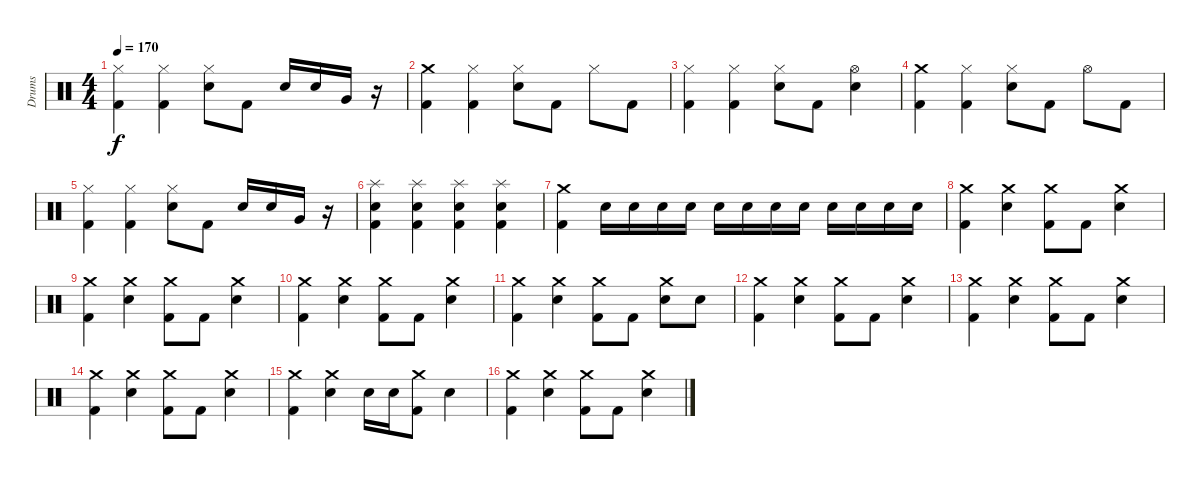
\track ("Drums" "Drums") {instrument percussion}
\staff {score}
\articulation defaults
\ts (4 4)
\tempo 170
\clef neutral
\ks c
("Hi-Hat (closed)" "Kick (hit) 2").4{dy f} ("Hi-Hat (closed)" "Kick (hit) 2").4 ("Hi-Hat (closed)" "Electric Snare (hit)").8 "Kick (hit) 2".8 "Electric Snare (hit)".16 "Electric Snare (hit)".16 "Very Low Tom (hit)".16 r.16 |
("Crash medium (hit)" "Kick (hit) 2").4 ("Hi-Hat (closed)" "Kick (hit) 2").4 ("Hi-Hat (closed)" "Electric Snare (hit)").8 "Kick (hit) 2".8 "Hi-Hat (closed)".8 "Kick (hit) 2".8 |
("Hi-Hat (closed)" "Kick (hit) 2").4 ("Hi-Hat (closed)" "Kick (hit) 2").4 ("Hi-Hat (closed)" "Electric Snare (hit)").8 "Kick (hit) 2".8 ("Hi-Hat (open)" "Electric Snare (hit)").4 |
("Crash medium (hit)" "Kick (hit) 2").4 ("Hi-Hat (closed)" "Kick (hit) 2").4 ("Hi-Hat (closed)" "Electric Snare (hit)").8 "Kick (hit) 2".8 "Hi-Hat (open)".8 "Kick (hit) 2".8 |
("Hi-Hat (closed)" "Kick (hit) 2").4 ("Hi-Hat (closed)" "Kick (hit) 2").4 ("Hi-Hat (closed)" "Electric Snare (hit)").8 "Kick (hit) 2".8 "Electric Snare (hit)".16 "Electric Snare (hit)".16 "Very Low Tom (hit)".16 r.16 |
("Splash (hit)" "Electric Snare (hit)" "Kick (hit) 2").4 ("Splash (hit)" "Electric Snare (hit)" "Kick (hit) 2").4 ("Splash (hit)" "Electric Snare (hit)" "Kick (hit) 2").4 ("Splash (hit)" "Electric Snare (hit)" "Kick (hit) 2").4 |
("Crash medium (hit)" "Kick (hit) 2").4 "Electric Snare (hit)".16 "Electric Snare (hit)".16 "Electric Snare (hit)".16 "Electric Snare (hit)".16 "Electric Snare (hit)".16 "Electric Snare (hit)".16 "Electric Snare (hit)".16 "Electric Snare (hit)".16 "Electric Snare (hit)".16 "Electric Snare (hit)".16 "Electric Snare (hit)".16 "Electric Snare (hit)".16 |
("Crash medium (hit)" "Kick (hit) 2").4 ("Crash medium (hit)" "Electric Snare (hit)").4 ("Crash medium (hit)" "Kick (hit) 2").8 "Kick (hit) 2".8 ("Crash medium (hit)" "Electric Snare (hit)").4 |
("Crash medium (hit)" "Kick (hit) 2").4 ("Crash medium (hit)" "Electric Snare (hit)").4 ("Crash medium (hit)" "Kick (hit) 2").8 "Kick (hit) 2".8 ("Crash medium (hit)" "Electric Snare (hit)").4 |
("Crash medium (hit)" "Kick (hit) 2").4 ("Crash medium (hit)" "Electric Snare (hit)").4 ("Crash medium (hit)" "Kick (hit) 2").8 "Kick (hit) 2".8 ("Crash medium (hit)" "Electric Snare (hit)").4 |
("Crash medium (hit)" "Kick (hit) 2").4 ("Crash medium (hit)" "Electric Snare (hit)").4 ("Crash medium (hit)" "Kick (hit) 2").8 "Kick (hit) 2".8 ("Crash medium (hit)" "Electric Snare (hit)").8 "Electric Snare (hit)".8 |
("Crash medium (hit)" "Kick (hit) 2").4 ("Crash medium (hit)" "Electric Snare (hit)").4 ("Crash medium (hit)" "Kick (hit) 2").8 "Kick (hit) 2".8 ("Crash medium (hit)" "Electric Snare (hit)").4 |
("Crash medium (hit)" "Kick (hit) 2").4 ("Crash medium (hit)" "Electric Snare (hit)").4 ("Crash medium (hit)" "Kick (hit) 2").8 "Kick (hit) 2".8 ("Crash medium (hit)" "Electric Snare (hit)").4 |
("Crash medium (hit)" "Kick (hit) 2").4 ("Crash medium (hit)" "Electric Snare (hit)").4 ("Crash medium (hit)" "Kick (hit) 2").8 "Kick (hit) 2".8 ("Crash medium (hit)" "Electric Snare (hit)").4 |
("Crash medium (hit)" "Kick (hit) 2").4 ("Crash medium (hit)" "Electric Snare (hit)").4 "Electric Snare (hit)".16 "Electric Snare (hit)".16 ("Crash medium (hit)" "Kick (hit) 2").8 "Electric Snare (hit)".4 |
("Crash medium (hit)" "Kick (hit) 2").4 ("Crash medium (hit)" "Electric Snare (hit)").4 ("Crash medium (hit)" "Kick (hit) 2").8 "Kick (hit) 2".8 ("Crash medium (hit)" "Electric Snare (hit)").4
